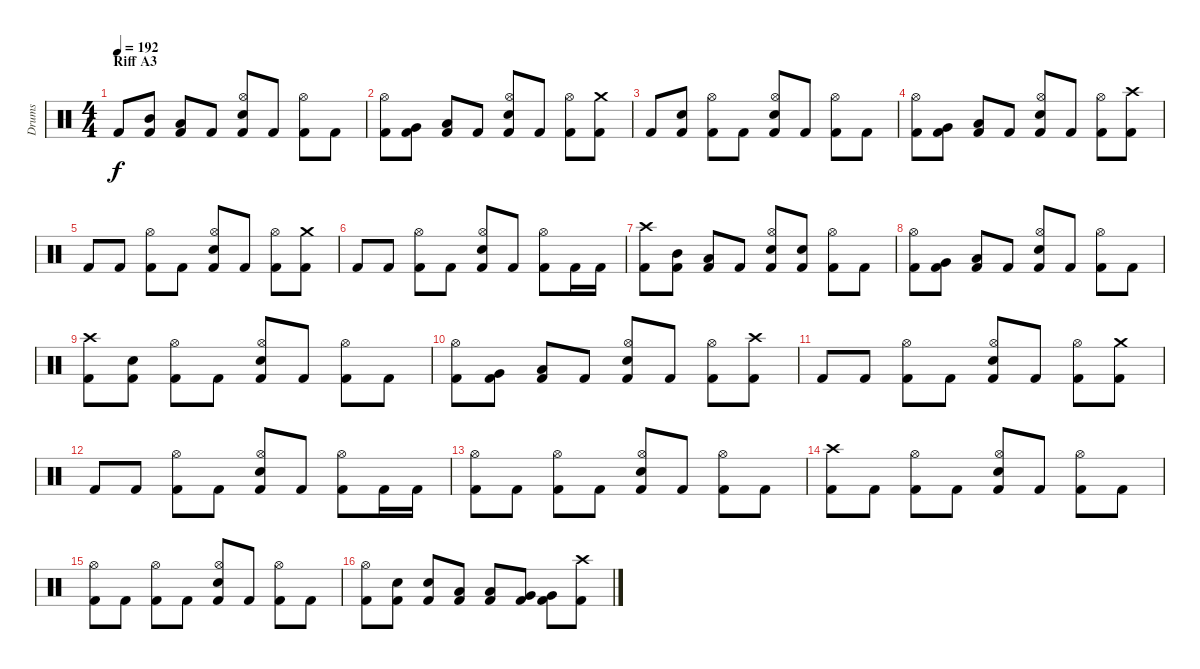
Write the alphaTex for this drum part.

\track ("Drums" "Drums") {instrument percussion}
\staff {score}
\articulation defaults
\ts (4 4)
\section ("" "Riff A3")
\tempo 192
\clef neutral
\ks c "Kick (hit) 2".8{dy f}
("Mid Tom (hit)" "Kick (hit) 2").8 ("Low Tom (hit)" "Kick (hit) 2").8 "Kick (hit) 2".8 ("Hi-Hat (open)" "Snare (hit) 2" "Kick (hit) 2").8 "Kick (hit) 2".8 ("Hi-Hat (open)" "Kick (hit) 2").8 "Kick (hit) 2".8 |
("Hi-Hat (open)" "Kick (hit) 2").8 ("Very Low Tom (hit)" "Kick (hit) 2").8 ("Low Floor Tom (hit)" "Kick (hit) 2").8 "Kick (hit) 2".8 ("Hi-Hat (open)" "Snare (hit) 2" "Kick (hit) 2").8 "Kick (hit) 2".8 ("Hi-Hat (open)" "Kick (hit) 2").8 ("Crash medium (hit)" "Kick (hit) 2").8 |
"Kick (hit) 2".8 ("Snare (hit) 2" "Kick (hit) 2").8 ("Hi-Hat (open)" "Kick (hit) 2").8 "Kick (hit) 2".8 ("Hi-Hat (open)" "Snare (hit) 2" "Kick (hit) 2").8 "Kick (hit) 2".8 ("Hi-Hat (open)" "Kick (hit) 2").8 "Kick (hit) 2".8 |
("Hi-Hat (open)" "Kick (hit) 2").8 ("Very Low Tom (hit)" "Kick (hit) 2").8 ("Low Floor Tom (hit)" "Kick (hit) 2").8 "Kick (hit) 2".8 ("Hi-Hat (open)" "Snare (hit) 2" "Kick (hit) 2").8 "Kick (hit) 2".8 ("Hi-Hat (open)" "Kick (hit) 2").8 ("Crash high (hit)" "Kick (hit) 2").8 |
"Kick (hit) 2".8 "Kick (hit) 2".8 ("Hi-Hat (open)" "Kick (hit) 2").8 "Kick (hit) 2".8 ("Hi-Hat (open)" "Snare (hit) 2" "Kick (hit) 2").8 "Kick (hit) 2".8 ("Hi-Hat (open)" "Kick (hit) 2").8 ("Crash medium (hit)" "Kick (hit) 2").8 |
"Kick (hit) 2".8 "Kick (hit) 2".8 ("Hi-Hat (open)" "Kick (hit) 2").8 "Kick (hit) 2".8 ("Hi-Hat (open)" "Snare (hit) 2" "Kick (hit) 2").8 "Kick (hit) 2".8 ("Hi-Hat (open)" "Kick (hit) 2").8 "Kick (hit) 2".16 "Kick (hit) 2".16 |
("Crash high (hit)" "Kick (hit) 2").8 ("Mid Tom (hit)" "Kick (hit) 2").8 ("Low Tom (hit)" "Kick (hit) 2").8 "Kick (hit) 2".8 ("Hi-Hat (open)" "Snare (hit) 2" "Kick (hit) 2").8 ("Snare (hit) 2" "Kick (hit) 2").8 ("Hi-Hat (open)" "Kick (hit) 2").8 "Kick (hit) 2".8 |
("Hi-Hat (open)" "Kick (hit) 2").8 ("Very Low Tom (hit)" "Kick (hit) 2").8 ("Low Floor Tom (hit)" "Kick (hit) 2").8 "Kick (hit) 2".8 ("Hi-Hat (open)" "Snare (hit) 2" "Kick (hit) 2").8 "Kick (hit) 2".8 ("Hi-Hat (open)" "Kick (hit) 2").8 "Kick (hit) 2".8 |
("Crash high (hit)" "Kick (hit) 2").8 ("Snare (hit) 2" "Kick (hit) 2").8 ("Hi-Hat (open)" "Kick (hit) 2").8 "Kick (hit) 2".8 ("Hi-Hat (open)" "Snare (hit) 2" "Kick (hit) 2").8 "Kick (hit) 2".8 ("Hi-Hat (open)" "Kick (hit) 2").8 "Kick (hit) 2".8 |
("Hi-Hat (open)" "Kick (hit) 2").8 ("Very Low Tom (hit)" "Kick (hit) 2").8 ("Low Floor Tom (hit)" "Kick (hit) 2").8 "Kick (hit) 2".8 ("Hi-Hat (open)" "Snare (hit) 2" "Kick (hit) 2").8 "Kick (hit) 2".8 ("Hi-Hat (open)" "Kick (hit) 2").8 ("Crash high (hit)" "Kick (hit) 2").8 |
"Kick (hit) 2".8 "Kick (hit) 2".8 ("Hi-Hat (open)" "Kick (hit) 2").8 "Kick (hit) 2".8 ("Hi-Hat (open)" "Snare (hit) 2" "Kick (hit) 2").8 "Kick (hit) 2".8 ("Hi-Hat (open)" "Kick (hit) 2").8 ("Crash medium (hit)" "Kick (hit) 2").8 |
"Kick (hit) 2".8 "Kick (hit) 2".8 ("Hi-Hat (open)" "Kick (hit) 2").8 "Kick (hit) 2".8 ("Hi-Hat (open)" "Snare (hit) 2" "Kick (hit) 2").8 "Kick (hit) 2".8 ("Hi-Hat (open)" "Kick (hit) 2").8 "Kick (hit) 2".16 "Kick (hit) 2".16 |
("Hi-Hat (open)" "Kick (hit) 2").8 "Kick (hit) 2".8 ("Hi-Hat (open)" "Kick (hit) 2").8 "Kick (hit) 2".8 ("Hi-Hat (open)" "Snare (hit) 2" "Kick (hit) 2").8 "Kick (hit) 2".8 ("Hi-Hat (open)" "Kick (hit) 2").8 "Kick (hit) 2".8 |
("Crash high (hit)" "Kick (hit) 2").8 "Kick (hit) 2".8 ("Hi-Hat (open)" "Kick (hit) 2").8 "Kick (hit) 2".8 ("Hi-Hat (open)" "Snare (hit) 2" "Kick (hit) 2").8 "Kick (hit) 2".8 ("Hi-Hat (open)" "Kick (hit) 2").8 "Kick (hit) 2".8 |
("Hi-Hat (open)" "Kick (hit) 2").8 "Kick (hit) 2".8 ("Hi-Hat (open)" "Kick (hit) 2").8 "Kick (hit) 2".8 ("Hi-Hat (open)" "Snare (hit) 2" "Kick (hit) 2").8 "Kick (hit) 2".8 ("Hi-Hat (open)" "Kick (hit) 2").8 "Kick (hit) 2".8 |
("Hi-Hat (open)" "Kick (hit) 2").8 ("Snare (hit) 2" "Kick (hit) 2").8 ("Snare (hit) 2" "Kick (hit) 2").8 ("Low Tom (hit)" "Kick (hit) 2").8 ("Low Tom (hit)" "Kick (hit) 2").8 ("Very Low Tom (hit)" "Kick (hit) 2").8 ("Very Low Tom (hit)" "Kick (hit) 2").8 ("Crash high (hit)" "Kick (hit) 2").8
